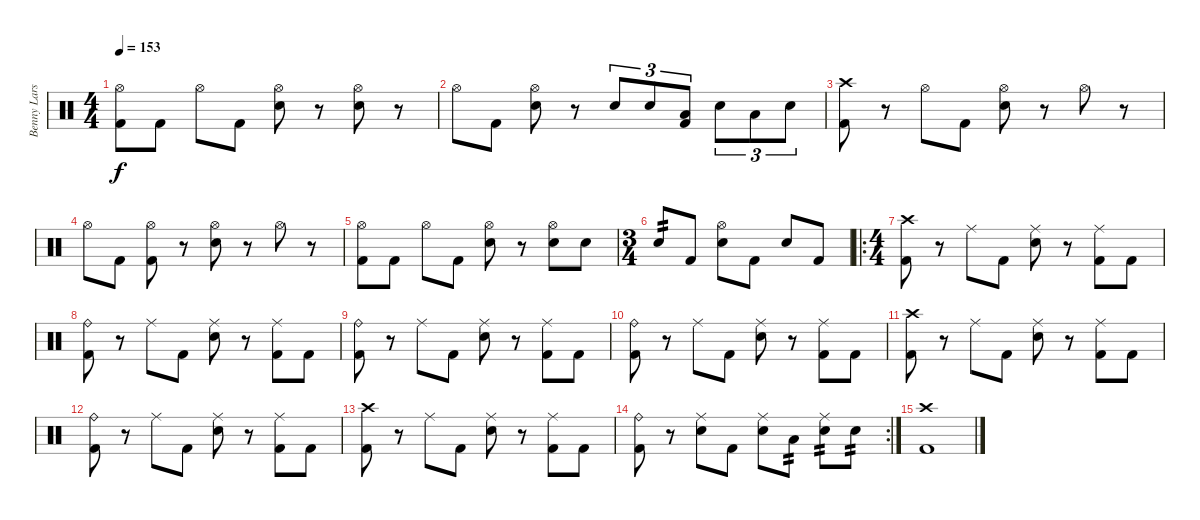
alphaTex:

\track ("Benny Larsson" "Benny Lars") {instrument percussion}
\staff {score}
\articulation defaults
\ts (4 4)
\tempo 153
\clef neutral
\ks c
("Hi-Hat (open)" "Kick (hit) 2").8{dy f} "Kick (hit) 2".8 "Hi-Hat (open)".8 "Kick (hit) 2".8 ("Hi-Hat (open)" "Electric Snare (hit)").8 r.8 ("Hi-Hat (open)" "Electric Snare (hit)").8 r.8 |
"Hi-Hat (open)".8 "Kick (hit) 2".8 ("Hi-Hat (open)" "Electric Snare (hit)").8 r.8 "Electric Snare (hit)".8{tu (3 2)} "Electric Snare (hit)".8{tu (3 2)} ("Low Tom (hit)" "Kick (hit) 2").8{tu (3 2)} "Electric Snare (hit)".8{tu (3 2)} "Low Tom (hit)".8{tu (3 2)} "Electric Snare (hit)".8{tu (3 2)} |
("Crash high (hit)" "Kick (hit) 2").8 r.8 "Hi-Hat (open)".8 "Kick (hit) 2".8 ("Hi-Hat (open)" "Electric Snare (hit)").8 r.8 "Hi-Hat (open)".8 r.8 |
"Hi-Hat (open)".8 "Kick (hit) 2".8 ("Hi-Hat (open)" "Kick (hit) 2").8 r.8 ("Hi-Hat (open)" "Electric Snare (hit)").8 r.8 "Hi-Hat (open)".8 r.8 |
("Hi-Hat (open)" "Kick (hit) 2").8 "Kick (hit) 2".8 "Hi-Hat (open)".8 "Kick (hit) 2".8 ("Hi-Hat (open)" "Electric Snare (hit)").8 r.8 ("Hi-Hat (open)" "Electric Snare (hit)").8 "Electric Snare (hit)".8 |
\ts (3 4)
"Electric Snare (hit)".8{tp 2} "Kick (hit) 2".8 ("Hi-Hat (open)" "Electric Snare (hit)").8 "Kick (hit) 2".8 "Electric Snare (hit)".8 "Kick (hit) 2".8 |
\ro
\ts (4 4)
("Crash high (hit)" "Kick (hit) 2").8 r.8 "Ride (middle)".8 "Kick (hit) 2".8 ("Ride (middle)" "Electric Snare (hit)").8 r.8 ("Ride (middle)" "Kick (hit) 2").8 "Kick (hit) 2".8 |
("Ride (bell)" "Kick (hit) 2").8 r.8 "Ride (middle)".8 "Kick (hit) 2".8 ("Ride (middle)" "Electric Snare (hit)").8 r.8 ("Ride (middle)" "Kick (hit) 2").8 "Kick (hit) 2".8 |
("Ride (bell)" "Kick (hit) 2").8 r.8 "Ride (middle)".8 "Kick (hit) 2".8 ("Ride (middle)" "Electric Snare (hit)").8 r.8 ("Ride (middle)" "Kick (hit) 2").8 "Kick (hit) 2".8 |
("Ride (bell)" "Kick (hit) 2").8 r.8 "Ride (middle)".8 "Kick (hit) 2".8 ("Ride (middle)" "Electric Snare (hit)").8 r.8 ("Ride (middle)" "Kick (hit) 2").8 "Kick (hit) 2".8 |
("Crash high (hit)" "Kick (hit) 2").8 r.8 "Ride (middle)".8 "Kick (hit) 2".8 ("Ride (middle)" "Electric Snare (hit)").8 r.8 ("Ride (middle)" "Kick (hit) 2").8 "Kick (hit) 2".8 |
("Ride (bell)" "Kick (hit) 2").8 r.8 "Ride (middle)".8 "Kick (hit) 2".8 ("Ride (middle)" "Electric Snare (hit)").8 r.8 ("Ride (middle)" "Kick (hit) 2").8 "Kick (hit) 2".8 |
("Crash high (hit)" "Kick (hit) 2").8 r.8 "Ride (middle)".8 "Kick (hit) 2".8 ("Ride (middle)" "Electric Snare (hit)").8 r.8 ("Ride (middle)" "Kick (hit) 2").8 "Kick (hit) 2".8 |
\rc 2
("Ride (bell)" "Kick (hit) 2").8 r.8 ("Ride (middle)" "Electric Snare (hit)").8 "Kick (hit) 2".8 ("Ride (middle)" "Electric Snare (hit)").8 "Low Tom (hit)".8{tp 2} ("Ride (middle)" "Electric Snare (hit)").8{tp 2} "Electric Snare (hit)".8{tp 2} |
("Crash high (hit)" "Kick (hit) 2").1
